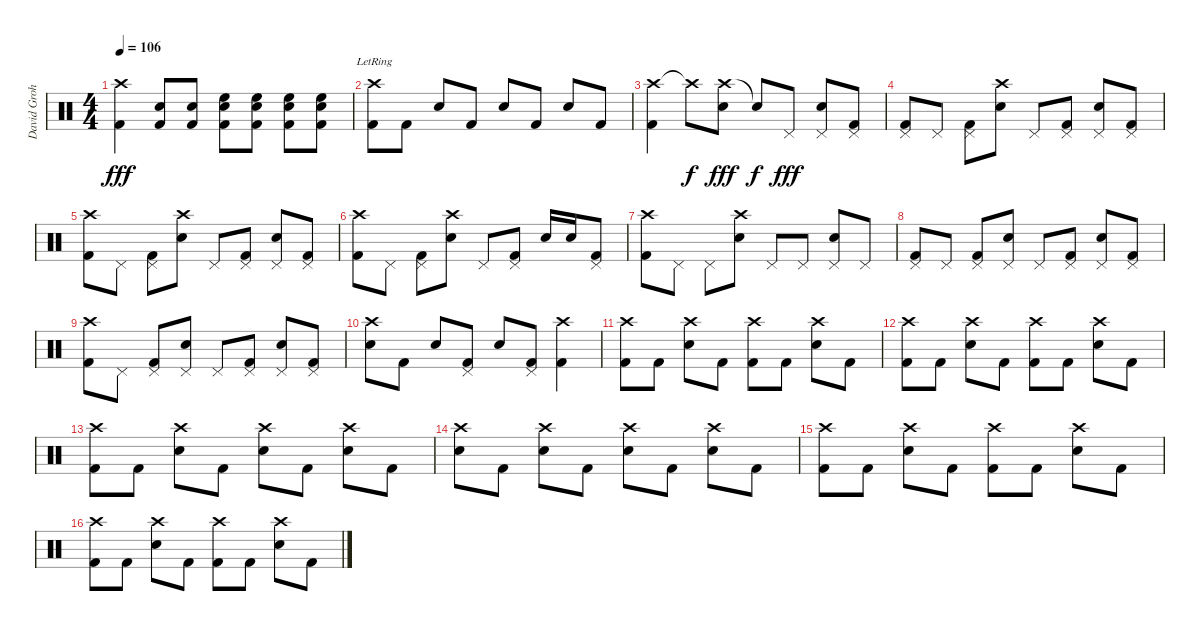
\track ("David Grohl 2 Crash Style !!" "David Groh") {instrument percussion}
\staff {score}
\articulation defaults
\ts (4 4)
\tempo 106
\clef neutral
\ks c
("Crash high (hit)" "Kick (hit) 2").4{dy fff} ("Snare (hit) 2" "Kick (hit) 2").8 ("Snare (hit) 2" "Kick (hit) 2").8 ("High Floor Tom (hit)" "Snare (hit) 2" "Kick (hit) 2").8 ("High Floor Tom (hit)" "Snare (hit) 2" "Kick (hit) 2").8 ("High Floor Tom (hit)" "Snare (hit) 2" "Kick (hit) 2").8 ("High Floor Tom (hit)" "Snare (hit) 2" "Kick (hit) 2").8 |
("Crash high (hit)"{lr} "Kick (hit) 2").8 "Kick (hit) 2".8 "Snare (hit) 2".8 "Kick (hit) 2".8 "Snare (hit) 2".8 "Kick (hit) 2".8 "Snare (hit) 2".8 "Kick (hit) 2".8 |
("Crash high (hit)" "Kick (hit) 2").4 "Crash high (hit)"{t}.8{dy f} ("Crash high (hit)" "Snare (hit) 2").8{dy fff} "Snare (hit)"{t}.8{dy f} "Pedal Hi-Hat (hit)".8{dy fff} ("Pedal Hi-Hat (hit)" "Snare (hit) 2").8 ("Pedal Hi-Hat (hit)" "Kick (hit) 2").8 |
("Pedal Hi-Hat (hit)" "Kick (hit) 2").8 "Pedal Hi-Hat (hit)".8 ("Pedal Hi-Hat (hit)" "Kick (hit) 2").8 ("Crash high (hit)" "Snare (hit) 2").8 "Pedal Hi-Hat (hit)".8 ("Pedal Hi-Hat (hit)" "Kick (hit) 2").8 ("Pedal Hi-Hat (hit)" "Snare (hit) 2").8 ("Pedal Hi-Hat (hit)" "Kick (hit) 2").8 |
("Crash high (hit)" "Kick (hit) 2").8 "Pedal Hi-Hat (hit)".8 ("Pedal Hi-Hat (hit)" "Kick (hit) 2").8 ("Crash high (hit)" "Snare (hit) 2").8 "Pedal Hi-Hat (hit)".8 ("Pedal Hi-Hat (hit)" "Kick (hit) 2").8 ("Pedal Hi-Hat (hit)" "Snare (hit) 2").8 ("Pedal Hi-Hat (hit)" "Kick (hit) 2").8 |
("Crash high (hit)" "Kick (hit) 2").8 "Pedal Hi-Hat (hit)".8 ("Pedal Hi-Hat (hit)" "Kick (hit) 2").8 ("Crash high (hit)" "Snare (hit) 2").8 "Pedal Hi-Hat (hit)".8 ("Pedal Hi-Hat (hit)" "Kick (hit) 2").8 "Snare (hit) 2".16 "Snare (hit) 2".16 ("Pedal Hi-Hat (hit)" "Kick (hit) 2").8 |
("Crash high (hit)" "Kick (hit) 2").8 "Pedal Hi-Hat (hit)".8 "Pedal Hi-Hat (hit)".8 ("Crash high (hit)" "Snare (hit) 2").8 "Pedal Hi-Hat (hit)".8 "Pedal Hi-Hat (hit)".8 ("Pedal Hi-Hat (hit)" "Snare (hit) 2").8 "Pedal Hi-Hat (hit)".8 |
("Pedal Hi-Hat (hit)" "Kick (hit) 2").8 "Pedal Hi-Hat (hit)".8 ("Pedal Hi-Hat (hit)" "Kick (hit) 2").8 ("Pedal Hi-Hat (hit)" "Snare (hit) 2").8 "Pedal Hi-Hat (hit)".8 ("Pedal Hi-Hat (hit)" "Kick (hit) 2").8 ("Pedal Hi-Hat (hit)" "Snare (hit) 2").8 ("Pedal Hi-Hat (hit)" "Kick (hit) 2").8 |
("Crash high (hit)" "Kick (hit) 2").8 "Pedal Hi-Hat (hit)".8 ("Pedal Hi-Hat (hit)" "Kick (hit) 2").8 ("Pedal Hi-Hat (hit)" "Snare (hit) 2").8 "Pedal Hi-Hat (hit)".8 ("Pedal Hi-Hat (hit)" "Kick (hit) 2").8 ("Pedal Hi-Hat (hit)" "Snare (hit) 2").8 ("Pedal Hi-Hat (hit)" "Kick (hit) 2").8 |
("Crash high (hit)" "Snare (hit) 2").8 "Kick (hit) 2".8 "Snare (hit) 2".8 ("Pedal Hi-Hat (hit)" "Kick (hit) 2").8 "Snare (hit) 2".8 ("Pedal Hi-Hat (hit)" "Kick (hit) 2").8 ("Crash high (hit)" "Kick (hit) 2").4 |
("Crash high (hit)" "Kick (hit) 2").8 "Kick (hit) 2".8 ("Crash high (hit)" "Snare (hit) 2").8 "Kick (hit) 2".8 ("Crash high (hit)" "Kick (hit) 2").8 "Kick (hit) 2".8 ("Crash high (hit)" "Snare (hit) 2").8 "Kick (hit) 2".8 |
("Crash high (hit)" "Kick (hit) 2").8 "Kick (hit) 2".8 ("Crash high (hit)" "Snare (hit) 2").8 "Kick (hit) 2".8 ("Crash high (hit)" "Kick (hit) 2").8 "Kick (hit) 2".8 ("Crash high (hit)" "Snare (hit) 2").8 "Kick (hit) 2".8 |
("Crash high (hit)" "Kick (hit) 2").8 "Kick (hit) 2".8 ("Crash high (hit)" "Snare (hit) 2").8 "Kick (hit) 2".8 ("Crash high (hit)" "Snare (hit) 2").8 "Kick (hit) 2".8 ("Crash high (hit)" "Snare (hit) 2").8 "Kick (hit) 2".8 |
("Crash high (hit)" "Snare (hit) 2").8 "Kick (hit) 2".8 ("Crash high (hit)" "Snare (hit) 2").8 "Kick (hit) 2".8 ("Crash high (hit)" "Snare (hit) 2").8 "Kick (hit) 2".8 ("Crash high (hit)" "Snare (hit) 2").8 "Kick (hit) 2".8 |
("Crash high (hit)" "Kick (hit) 2").8 "Kick (hit) 2".8 ("Crash high (hit)" "Snare (hit) 2").8 "Kick (hit) 2".8 ("Crash high (hit)" "Kick (hit) 2").8 "Kick (hit) 2".8 ("Crash high (hit)" "Snare (hit) 2").8 "Kick (hit) 2".8 |
("Crash high (hit)" "Kick (hit) 2").8 "Kick (hit) 2".8 ("Crash high (hit)" "Snare (hit) 2").8 "Kick (hit) 2".8 ("Crash high (hit)" "Kick (hit) 2").8 "Kick (hit) 2".8 ("Crash high (hit)" "Snare (hit) 2").8 "Kick (hit) 2".8
